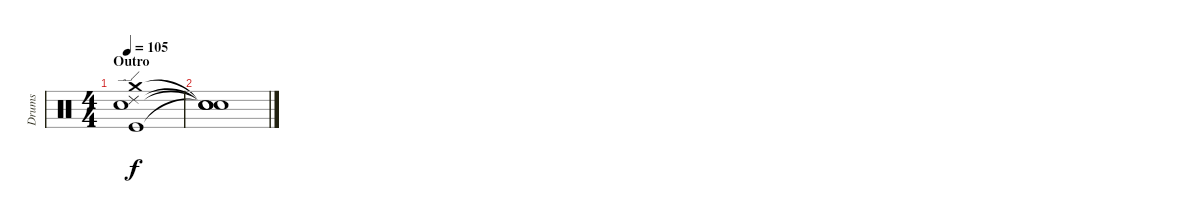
\track ("Drums" "Drums") {instrument percussion}
\staff {score}
\articulation defaults
\ts (4 4)
\section ("" "Outro")
\tempo 105
\clef neutral
\ks c
("Crash medium (hit)" "Ride (edge) 2" "Snare (hit) 2" "Kick (hit)").1{dy f} |
("Snare (hit)"{t} "Snare (hit)"{t} "Snare (hit)"{t} "Snare (hit)"{t}).1
